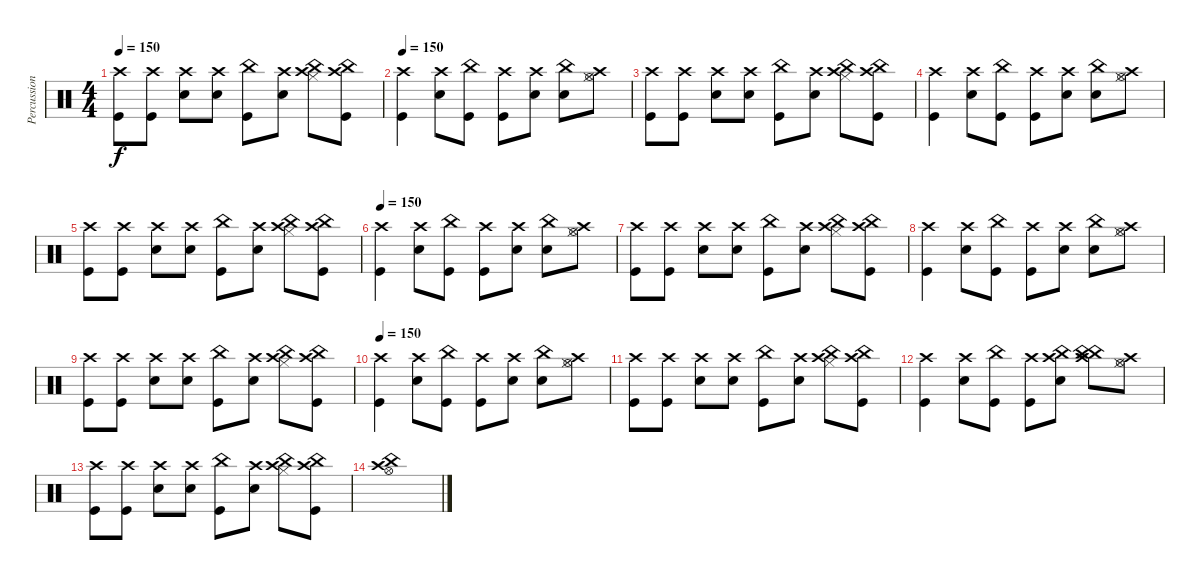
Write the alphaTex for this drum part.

\track ("Percussion" "Percussion") {instrument percussion}
\staff {score}
\articulation defaults
\ts (4 4)
\tempo 150
\clef neutral
\ks c
("Kick (hit)" "Crash high (hit)").8{dy f} ("Kick (hit)" "Crash high (hit)").8 ("Snare (hit) 2" "Crash high (hit)").8 ("Snare (hit) 2" "Crash high (hit)").8 ("Kick (hit)" "China (hit)").8 ("Snare (hit) 2" "Crash high (hit)").8 ("Hi-Hat (closed)" "Crash high (hit)" "China (hit)").8 ("Kick (hit)" "China (hit)" "Crash high (hit)").8 |
\tempo 150
("Kick (hit)" "Crash high (hit)").4 ("Snare (hit) 2" "Crash high (hit)").8 ("Kick (hit)" "China (hit)").8 ("Kick (hit)" "Crash high (hit)").8 ("Snare (hit) 2" "Crash high (hit)").8 ("Snare (hit) 2" "China (hit)").8 ("Hi-Hat (closed)" "Hi-Hat (open)" "Crash high (hit)").8 |
("Kick (hit)" "Crash high (hit)").8 ("Kick (hit)" "Crash high (hit)").8 ("Snare (hit) 2" "Crash high (hit)").8 ("Snare (hit) 2" "Crash high (hit)").8 ("Kick (hit)" "China (hit)").8 ("Snare (hit) 2" "Crash high (hit)").8 ("Hi-Hat (closed)" "Crash high (hit)" "China (hit)").8 ("Kick (hit)" "China (hit)" "Crash high (hit)").8 |
("Kick (hit)" "Crash high (hit)").4 ("Snare (hit) 2" "Crash high (hit)").8 ("Kick (hit)" "China (hit)").8 ("Kick (hit)" "Crash high (hit)").8 ("Snare (hit) 2" "Crash high (hit)").8 ("Snare (hit) 2" "China (hit)").8 ("Hi-Hat (closed)" "Hi-Hat (open)" "Crash high (hit)").8 |
("Kick (hit)" "Crash high (hit)").8 ("Kick (hit)" "Crash high (hit)").8 ("Snare (hit) 2" "Crash high (hit)").8 ("Snare (hit) 2" "Crash high (hit)").8 ("Kick (hit)" "China (hit)").8 ("Snare (hit) 2" "Crash high (hit)").8 ("Hi-Hat (closed)" "Crash high (hit)" "China (hit)").8 ("Kick (hit)" "China (hit)" "Crash high (hit)").8 |
\tempo 150
("Kick (hit)" "Crash high (hit)").4 ("Snare (hit) 2" "Crash high (hit)").8 ("Kick (hit)" "China (hit)").8 ("Kick (hit)" "Crash high (hit)").8 ("Snare (hit) 2" "Crash high (hit)").8 ("Snare (hit) 2" "China (hit)").8 ("Hi-Hat (closed)" "Hi-Hat (open)" "Crash high (hit)").8 |
("Kick (hit)" "Crash high (hit)").8 ("Kick (hit)" "Crash high (hit)").8 ("Snare (hit) 2" "Crash high (hit)").8 ("Snare (hit) 2" "Crash high (hit)").8 ("Kick (hit)" "China (hit)").8 ("Snare (hit) 2" "Crash high (hit)").8 ("Hi-Hat (closed)" "Crash high (hit)" "China (hit)").8 ("Kick (hit)" "China (hit)" "Crash high (hit)").8 |
("Kick (hit)" "Crash high (hit)").4 ("Snare (hit) 2" "Crash high (hit)").8 ("Kick (hit)" "China (hit)").8 ("Kick (hit)" "Crash high (hit)").8 ("Snare (hit) 2" "Crash high (hit)").8 ("Snare (hit) 2" "China (hit)").8 ("Hi-Hat (closed)" "Hi-Hat (open)" "Crash high (hit)").8 |
("Kick (hit)" "Crash high (hit)").8 ("Kick (hit)" "Crash high (hit)").8 ("Snare (hit) 2" "Crash high (hit)").8 ("Snare (hit) 2" "Crash high (hit)").8 ("Kick (hit)" "China (hit)").8 ("Snare (hit) 2" "Crash high (hit)").8 ("Hi-Hat (closed)" "Crash high (hit)" "China (hit)").8 ("Kick (hit)" "China (hit)" "Crash high (hit)").8 |
\tempo 150
("Kick (hit)" "Crash high (hit)").4 ("Snare (hit) 2" "Crash high (hit)").8 ("Kick (hit)" "China (hit)").8 ("Kick (hit)" "Crash high (hit)").8 ("Snare (hit) 2" "Crash high (hit)").8 ("Snare (hit) 2" "China (hit)").8 ("Hi-Hat (closed)" "Hi-Hat (open)" "Crash high (hit)").8 |
("Kick (hit)" "Crash high (hit)").8 ("Kick (hit)" "Crash high (hit)").8 ("Snare (hit) 2" "Crash high (hit)").8 ("Snare (hit) 2" "Crash high (hit)").8 ("Kick (hit)" "China (hit)").8 ("Snare (hit) 2" "Crash high (hit)").8 ("Hi-Hat (closed)" "Crash high (hit)" "China (hit)").8 ("Kick (hit)" "China (hit)" "Crash high (hit)").8 |
("Kick (hit)" "Crash high (hit)").4 ("Snare (hit) 2" "Crash high (hit)").8 ("Kick (hit)" "China (hit)").8 ("Kick (hit)" "Crash high (hit)").8 ("China (hit)" "Snare (hit) 2" "Crash high (hit)").8 ("China (hit)" "Crash high (hit)" "China (hit)").8 ("Hi-Hat (closed)" "Hi-Hat (open)" "Crash high (hit)").8 |
("Kick (hit)" "Crash high (hit)").8 ("Kick (hit)" "Crash high (hit)").8 ("Snare (hit) 2" "Crash high (hit)").8 ("Snare (hit) 2" "Crash high (hit)").8 ("Kick (hit)" "China (hit)").8 ("Snare (hit) 2" "Crash high (hit)").8 ("Hi-Hat (closed)" "Crash high (hit)" "China (hit)").8 ("Kick (hit)" "China (hit)" "Crash high (hit)").8 |
("China (hit)" "Hi-Hat (open)" "Crash high (hit)").1
